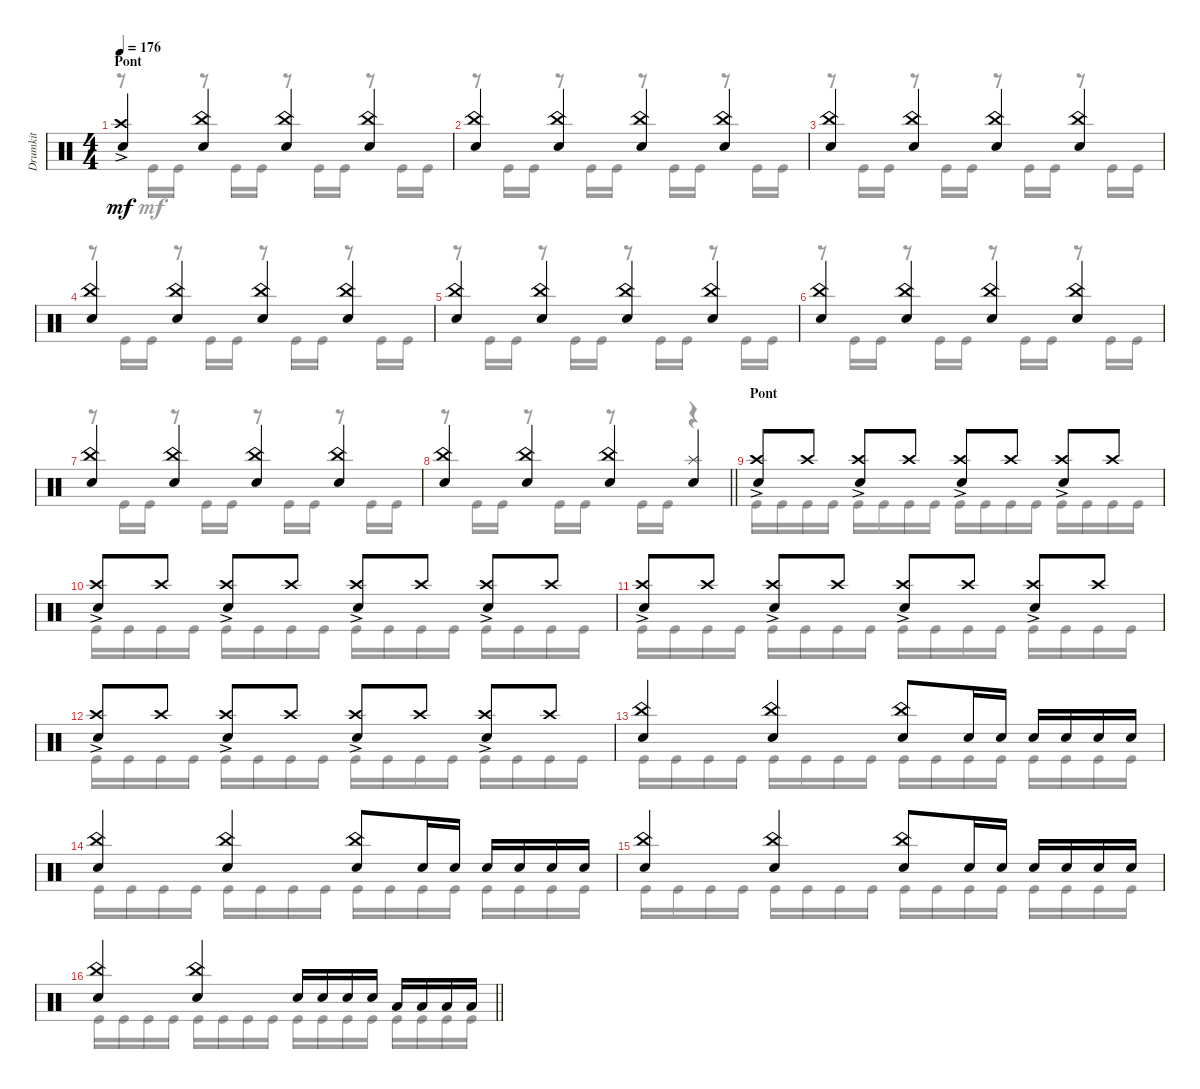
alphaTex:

\track ("Drumkit" "Drumkit") {instrument percussion}
\staff {score}
\articulation defaults
\voice
\ts (4 4)
\section ("" "Pont")
\tempo 176
\clef neutral
\ks c
("Snare (hit) 2" "Crash high (hit)"{ac}).4{dy mf} ("Snare (hit) 2" "China (hit)").4 ("Snare (hit) 2" "China (hit)").4 ("Snare (hit) 2" "China (hit)").4 |
("Snare (hit) 2" "China (hit)").4 ("Snare (hit) 2" "China (hit)").4 ("Snare (hit) 2" "China (hit)").4 ("Snare (hit) 2" "China (hit)").4 |
("Snare (hit) 2" "China (hit)").4 ("Snare (hit) 2" "China (hit)").4 ("Snare (hit) 2" "China (hit)").4 ("Snare (hit) 2" "China (hit)").4 |
("Snare (hit) 2" "China (hit)").4 ("Snare (hit) 2" "China (hit)").4 ("Snare (hit) 2" "China (hit)").4 ("Snare (hit) 2" "China (hit)").4 |
("Snare (hit) 2" "China (hit)").4 ("Snare (hit) 2" "China (hit)").4 ("Snare (hit) 2" "China (hit)").4 ("Snare (hit) 2" "China (hit)").4 |
("Snare (hit) 2" "China (hit)").4 ("Snare (hit) 2" "China (hit)").4 ("Snare (hit) 2" "China (hit)").4 ("Snare (hit) 2" "China (hit)").4 |
("Snare (hit) 2" "China (hit)").4 ("Snare (hit) 2" "China (hit)").4 ("Snare (hit) 2" "China (hit)").4 ("Snare (hit) 2" "China (hit)").4 |
\barLineRight lightlight
("Snare (hit) 2" "China (hit)").4 ("Snare (hit) 2" "China (hit)").4 ("Snare (hit) 2" "China (hit)").4 ("Snare (hit) 2" "Splash (hit)").4 |
\section ("" "Pont")
("Crash high (hit)"{ac} "Snare (hit) 2").8 "Crash high (hit)".8 ("Crash high (hit)"{ac} "Snare (hit) 2").8 "Crash high (hit)".8 ("Crash high (hit)"{ac} "Snare (hit) 2").8 "Crash high (hit)".8 ("Crash high (hit)"{ac} "Snare (hit) 2").8 "Crash high (hit)".8 |
("Crash high (hit)"{ac} "Snare (hit) 2").8 "Crash high (hit)".8 ("Crash high (hit)"{ac} "Snare (hit) 2").8 "Crash high (hit)".8 ("Crash high (hit)"{ac} "Snare (hit) 2").8 "Crash high (hit)".8 ("Crash high (hit)"{ac} "Snare (hit) 2").8 "Crash high (hit)".8 |
("Crash high (hit)"{ac} "Snare (hit) 2").8 "Crash high (hit)".8 ("Crash high (hit)"{ac} "Snare (hit) 2").8 "Crash high (hit)".8 ("Crash high (hit)"{ac} "Snare (hit) 2").8 "Crash high (hit)".8 ("Crash high (hit)"{ac} "Snare (hit) 2").8 "Crash high (hit)".8 |
("Crash high (hit)"{ac} "Snare (hit) 2").8 "Crash high (hit)".8 ("Crash high (hit)"{ac} "Snare (hit) 2").8 "Crash high (hit)".8 ("Crash high (hit)"{ac} "Snare (hit) 2").8 "Crash high (hit)".8 ("Crash high (hit)"{ac} "Snare (hit) 2").8 "Crash high (hit)".8 |
("Snare (hit) 2" "China (hit)").4 ("Snare (hit) 2" "China (hit)").4 ("Snare (hit) 2" "China (hit)").8 "Snare (hit) 2".16 "Snare (hit) 2".16 "Snare (hit) 2".16 "Snare (hit) 2".16 "Snare (hit) 2".16 "Snare (hit) 2".16 |
("Snare (hit) 2" "China (hit)").4 ("Snare (hit) 2" "China (hit)").4 ("Snare (hit) 2" "China (hit)").8 "Snare (hit) 2".16 "Snare (hit) 2".16 "Snare (hit) 2".16 "Snare (hit) 2".16 "Snare (hit) 2".16 "Snare (hit) 2".16 |
("Snare (hit) 2" "China (hit)").4 ("Snare (hit) 2" "China (hit)").4 ("Snare (hit) 2" "China (hit)").8 "Snare (hit) 2".16 "Snare (hit) 2".16 "Snare (hit) 2".16 "Snare (hit) 2".16 "Snare (hit) 2".16 "Snare (hit) 2".16 |
\barLineRight lightlight
("Snare (hit) 2" "China (hit)").4 ("Snare (hit) 2" "China (hit)").4 "Snare (hit) 2".16 "Snare (hit) 2".16 "Snare (hit) 2".16 "Snare (hit) 2".16 "Low Tom (hit)".16 "Low Tom (hit)".16 "Low Tom (hit)".16 "Low Tom (hit)".16
\voice
\clef neutral
\ottava regular
\simile none
\ks c
r.8{dy mf} "Kick (hit)".16 "Kick (hit)".16 r.8 "Kick (hit)".16 "Kick (hit)".16 r.8 "Kick (hit)".16 "Kick (hit)".16 r.8 "Kick (hit)".16 "Kick (hit)".16 |
r.8 "Kick (hit)".16 "Kick (hit)".16 r.8 "Kick (hit)".16 "Kick (hit)".16 r.8 "Kick (hit)".16 "Kick (hit)".16 r.8 "Kick (hit)".16 "Kick (hit)".16 |
r.8 "Kick (hit)".16 "Kick (hit)".16 r.8 "Kick (hit)".16 "Kick (hit)".16 r.8 "Kick (hit)".16 "Kick (hit)".16 r.8 "Kick (hit)".16 "Kick (hit)".16 |
r.8 "Kick (hit)".16 "Kick (hit)".16 r.8 "Kick (hit)".16 "Kick (hit)".16 r.8 "Kick (hit)".16 "Kick (hit)".16 r.8 "Kick (hit)".16 "Kick (hit)".16 |
r.8 "Kick (hit)".16 "Kick (hit)".16 r.8 "Kick (hit)".16 "Kick (hit)".16 r.8 "Kick (hit)".16 "Kick (hit)".16 r.8 "Kick (hit)".16 "Kick (hit)".16 |
r.8 "Kick (hit)".16 "Kick (hit)".16 r.8 "Kick (hit)".16 "Kick (hit)".16 r.8 "Kick (hit)".16 "Kick (hit)".16 r.8 "Kick (hit)".16 "Kick (hit)".16 |
r.8 "Kick (hit)".16 "Kick (hit)".16 r.8 "Kick (hit)".16 "Kick (hit)".16 r.8 "Kick (hit)".16 "Kick (hit)".16 r.8 "Kick (hit)".16 "Kick (hit)".16 |
\barLineRight lightlight
r.8 "Kick (hit)".16 "Kick (hit)".16 r.8 "Kick (hit)".16 "Kick (hit)".16 r.8 "Kick (hit)".16 "Kick (hit)".16 r.4 |
"Kick (hit)".16 "Kick (hit)".16 "Kick (hit)".16 "Kick (hit)".16 "Kick (hit)".16 "Kick (hit)".16 "Kick (hit)".16 "Kick (hit)".16 "Kick (hit)".16 "Kick (hit)".16 "Kick (hit)".16 "Kick (hit)".16 "Kick (hit)".16 "Kick (hit)".16 "Kick (hit)".16 "Kick (hit)".16 |
"Kick (hit)".16 "Kick (hit)".16 "Kick (hit)".16 "Kick (hit)".16 "Kick (hit)".16 "Kick (hit)".16 "Kick (hit)".16 "Kick (hit)".16 "Kick (hit)".16 "Kick (hit)".16 "Kick (hit)".16 "Kick (hit)".16 "Kick (hit)".16 "Kick (hit)".16 "Kick (hit)".16 "Kick (hit)".16 |
"Kick (hit)".16 "Kick (hit)".16 "Kick (hit)".16 "Kick (hit)".16 "Kick (hit)".16 "Kick (hit)".16 "Kick (hit)".16 "Kick (hit)".16 "Kick (hit)".16 "Kick (hit)".16 "Kick (hit)".16 "Kick (hit)".16 "Kick (hit)".16 "Kick (hit)".16 "Kick (hit)".16 "Kick (hit)".16 |
"Kick (hit)".16 "Kick (hit)".16 "Kick (hit)".16 "Kick (hit)".16 "Kick (hit)".16 "Kick (hit)".16 "Kick (hit)".16 "Kick (hit)".16 "Kick (hit)".16 "Kick (hit)".16 "Kick (hit)".16 "Kick (hit)".16 "Kick (hit)".16 "Kick (hit)".16 "Kick (hit)".16 "Kick (hit)".16 |
"Kick (hit)".16 "Kick (hit)".16 "Kick (hit)".16 "Kick (hit)".16 "Kick (hit)".16 "Kick (hit)".16 "Kick (hit)".16 "Kick (hit)".16 "Kick (hit)".16 "Kick (hit)".16 "Kick (hit)".16 "Kick (hit)".16 "Kick (hit)".16 "Kick (hit)".16 "Kick (hit)".16 "Kick (hit)".16 |
"Kick (hit)".16 "Kick (hit)".16 "Kick (hit)".16 "Kick (hit)".16 "Kick (hit)".16 "Kick (hit)".16 "Kick (hit)".16 "Kick (hit)".16 "Kick (hit)".16 "Kick (hit)".16 "Kick (hit)".16 "Kick (hit)".16 "Kick (hit)".16 "Kick (hit)".16 "Kick (hit)".16 "Kick (hit)".16 |
"Kick (hit)".16 "Kick (hit)".16 "Kick (hit)".16 "Kick (hit)".16 "Kick (hit)".16 "Kick (hit)".16 "Kick (hit)".16 "Kick (hit)".16 "Kick (hit)".16 "Kick (hit)".16 "Kick (hit)".16 "Kick (hit)".16 "Kick (hit)".16 "Kick (hit)".16 "Kick (hit)".16 "Kick (hit)".16 |
\barLineRight lightlight "Kick (hit)".16 "Kick (hit)".16 "Kick (hit)".16 "Kick (hit)".16 "Kick (hit)".16 "Kick (hit)".16 "Kick (hit)".16 "Kick (hit)".16 "Kick (hit)".16 "Kick (hit)".16 "Kick (hit)".16 "Kick (hit)".16 "Kick (hit)".16 "Kick (hit)".16 "Kick (hit)".16 "Kick (hit)".16
